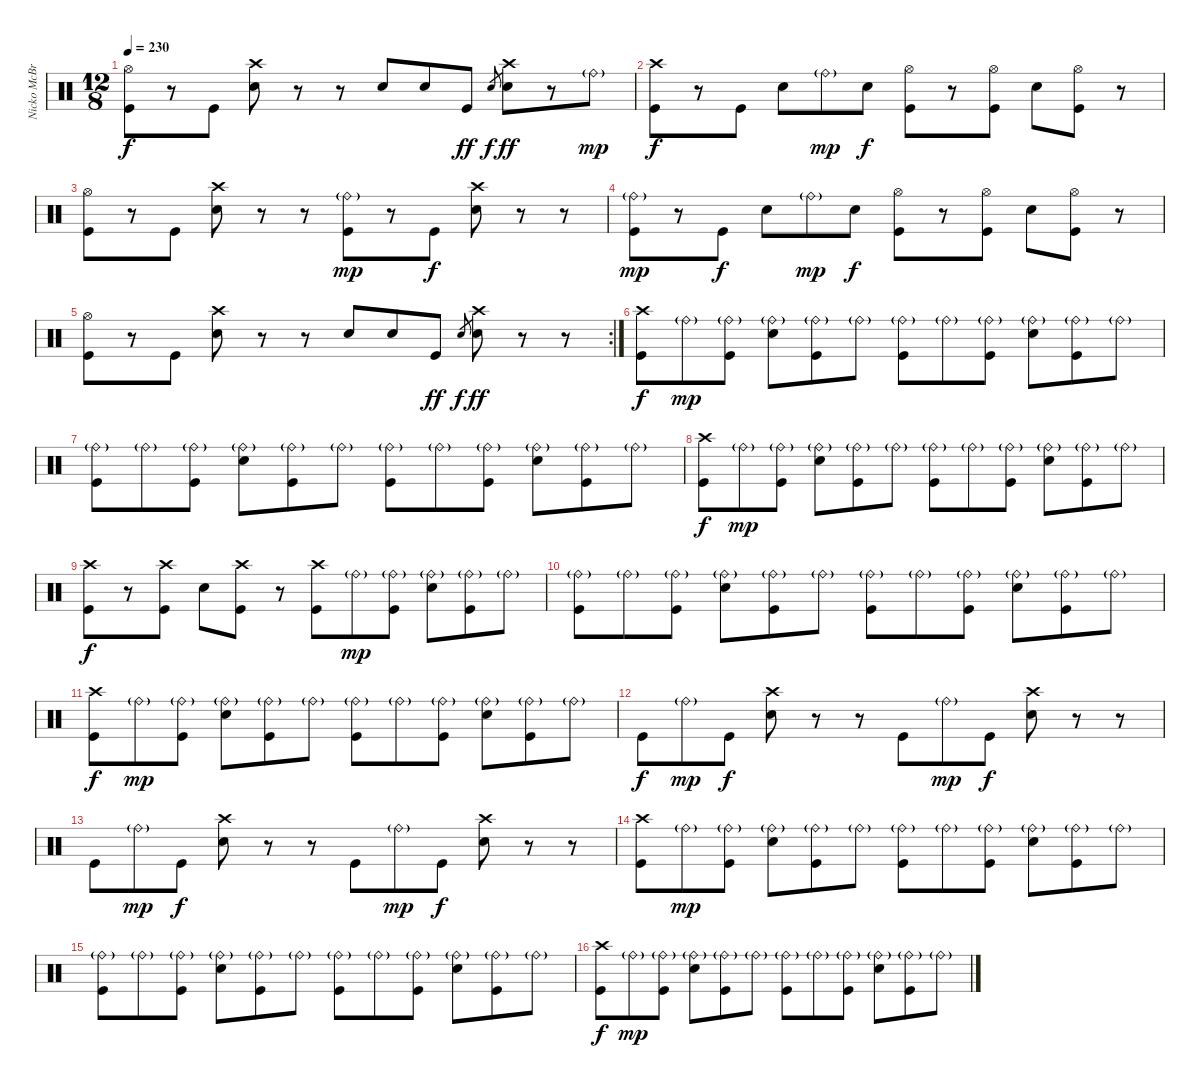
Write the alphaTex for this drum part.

\track ("Nicko McBrain" "Nicko McBr") {instrument percussion}
\staff {score}
\articulation defaults
\ts (12 8)
\tempo 230
\clef neutral
\ks c
("Hi-Hat (open)" "Kick (hit)").8{dy f} r.8 "Kick (hit)".8 ("Crash high (hit)" "Electric Snare (hit)").8 r.8 r.8 "Electric Snare (hit)".8 "Electric Snare (hit)".8 "Kick (hit)".8{dy ff} "Electric Snare (hit)".8{gr dy f} ("Crash high (hit)" "Electric Snare (hit)").8{dy ff} r.8 "Ride (bell)"{g}.8{dy mp} |
("Crash high (hit)" "Kick (hit)").8{dy f} r.8 "Kick (hit)".8 "Electric Snare (hit)".8 "Ride (bell)"{g}.8{dy mp} "Electric Snare (hit)".8{dy f} ("Hi-Hat (open)" "Kick (hit)").8 r.8 ("Hi-Hat (open)" "Kick (hit)").8 "Electric Snare (hit)".8 ("Hi-Hat (open)" "Kick (hit)").8 r.8 |
("Hi-Hat (open)" "Kick (hit)").8 r.8 "Kick (hit)".8 ("Crash high (hit)" "Electric Snare (hit)").8 r.8 r.8 ("Ride (bell)"{g} "Kick (hit)").8{dy mp} r.8 "Kick (hit)".8{dy f} ("Crash high (hit)" "Electric Snare (hit)").8 r.8 r.8 |
("Ride (bell)"{g} "Kick (hit)").8{dy mp} r.8 "Kick (hit)".8{dy f} "Electric Snare (hit)".8 "Ride (bell)"{g}.8{dy mp} "Electric Snare (hit)".8{dy f} ("Hi-Hat (open)" "Kick (hit)").8 r.8 ("Hi-Hat (open)" "Kick (hit)").8 "Electric Snare (hit)".8 ("Hi-Hat (open)" "Kick (hit)").8 r.8 |
\rc 2
("Hi-Hat (open)" "Kick (hit)").8 r.8 "Kick (hit)".8 ("Crash high (hit)" "Electric Snare (hit)").8 r.8 r.8 "Electric Snare (hit)".8 "Electric Snare (hit)".8 "Kick (hit)".8{dy ff} "Electric Snare (hit)".8{gr dy f} ("Crash high (hit)" "Electric Snare (hit)").8{dy ff} r.8 r.8 |
("Crash high (hit)" "Kick (hit)").8{dy f} "Ride (bell)"{g}.8{dy mp} ("Ride (bell)"{g} "Kick (hit)").8 ("Ride (bell)"{g} "Electric Snare (hit)").8 ("Ride (bell)"{g} "Kick (hit)").8 "Ride (bell)"{g}.8 ("Ride (bell)"{g} "Kick (hit)").8 "Ride (bell)"{g}.8 ("Ride (bell)"{g} "Kick (hit)").8 ("Ride (bell)"{g} "Electric Snare (hit)").8 ("Ride (bell)"{g} "Kick (hit)").8 "Ride (bell)"{g}.8 |
("Ride (bell)"{g} "Kick (hit)").8 "Ride (bell)"{g}.8 ("Ride (bell)"{g} "Kick (hit)").8 ("Ride (bell)"{g} "Electric Snare (hit)").8 ("Ride (bell)"{g} "Kick (hit)").8 "Ride (bell)"{g}.8 ("Ride (bell)"{g} "Kick (hit)").8 "Ride (bell)"{g}.8 ("Ride (bell)"{g} "Kick (hit)").8 ("Ride (bell)"{g} "Electric Snare (hit)").8 ("Ride (bell)"{g} "Kick (hit)").8 "Ride (bell)"{g}.8 |
("Crash high (hit)" "Kick (hit)").8{dy f} "Ride (bell)"{g}.8{dy mp} ("Ride (bell)"{g} "Kick (hit)").8 ("Ride (bell)"{g} "Electric Snare (hit)").8 ("Ride (bell)"{g} "Kick (hit)").8 "Ride (bell)"{g}.8 ("Ride (bell)"{g} "Kick (hit)").8 "Ride (bell)"{g}.8 ("Ride (bell)"{g} "Kick (hit)").8 ("Ride (bell)"{g} "Electric Snare (hit)").8 ("Ride (bell)"{g} "Kick (hit)").8 "Ride (bell)"{g}.8 |
("Crash high (hit)" "Kick (hit)").8{dy f} r.8 ("Crash high (hit)" "Kick (hit)").8 "Electric Snare (hit)".8 ("Crash high (hit)" "Kick (hit)").8 r.8 ("Crash high (hit)" "Kick (hit)").8 "Ride (bell)"{g}.8{dy mp} ("Ride (bell)"{g} "Kick (hit)").8 ("Ride (bell)"{g} "Electric Snare (hit)").8 ("Ride (bell)"{g} "Kick (hit)").8 "Ride (bell)"{g}.8 |
("Ride (bell)"{g} "Kick (hit)").8 "Ride (bell)"{g}.8 ("Ride (bell)"{g} "Kick (hit)").8 ("Ride (bell)"{g} "Electric Snare (hit)").8 ("Ride (bell)"{g} "Kick (hit)").8 "Ride (bell)"{g}.8 ("Ride (bell)"{g} "Kick (hit)").8 "Ride (bell)"{g}.8 ("Ride (bell)"{g} "Kick (hit)").8 ("Ride (bell)"{g} "Electric Snare (hit)").8 ("Ride (bell)"{g} "Kick (hit)").8 "Ride (bell)"{g}.8 |
("Crash high (hit)" "Kick (hit)").8{dy f} "Ride (bell)"{g}.8{dy mp} ("Ride (bell)"{g} "Kick (hit)").8 ("Ride (bell)"{g} "Electric Snare (hit)").8 ("Ride (bell)"{g} "Kick (hit)").8 "Ride (bell)"{g}.8 ("Ride (bell)"{g} "Kick (hit)").8 "Ride (bell)"{g}.8 ("Ride (bell)"{g} "Kick (hit)").8 ("Ride (bell)"{g} "Electric Snare (hit)").8 ("Ride (bell)"{g} "Kick (hit)").8 "Ride (bell)"{g}.8 |
"Kick (hit)".8{dy f} "Ride (bell)"{g}.8{dy mp} "Kick (hit)".8{dy f} ("Crash high (hit)" "Electric Snare (hit)").8 r.8 r.8 "Kick (hit)".8 "Ride (bell)"{g}.8{dy mp} "Kick (hit)".8{dy f} ("Crash high (hit)" "Electric Snare (hit)").8 r.8 r.8 |
"Kick (hit)".8 "Ride (bell)"{g}.8{dy mp} "Kick (hit)".8{dy f} ("Crash high (hit)" "Electric Snare (hit)").8 r.8 r.8 "Kick (hit)".8 "Ride (bell)"{g}.8{dy mp} "Kick (hit)".8{dy f} ("Crash high (hit)" "Electric Snare (hit)").8 r.8 r.8 |
("Crash high (hit)" "Kick (hit)").8 "Ride (bell)"{g}.8{dy mp} ("Ride (bell)"{g} "Kick (hit)").8 ("Ride (bell)"{g} "Electric Snare (hit)").8 ("Ride (bell)"{g} "Kick (hit)").8 "Ride (bell)"{g}.8 ("Ride (bell)"{g} "Kick (hit)").8 "Ride (bell)"{g}.8 ("Ride (bell)"{g} "Kick (hit)").8 ("Ride (bell)"{g} "Electric Snare (hit)").8 ("Ride (bell)"{g} "Kick (hit)").8 "Ride (bell)"{g}.8 |
("Ride (bell)"{g} "Kick (hit)").8 "Ride (bell)"{g}.8 ("Ride (bell)"{g} "Kick (hit)").8 ("Ride (bell)"{g} "Electric Snare (hit)").8 ("Ride (bell)"{g} "Kick (hit)").8 "Ride (bell)"{g}.8 ("Ride (bell)"{g} "Kick (hit)").8 "Ride (bell)"{g}.8 ("Ride (bell)"{g} "Kick (hit)").8 ("Ride (bell)"{g} "Electric Snare (hit)").8 ("Ride (bell)"{g} "Kick (hit)").8 "Ride (bell)"{g}.8 |
("Crash high (hit)" "Kick (hit)").8{dy f} "Ride (bell)"{g}.8{dy mp} ("Ride (bell)"{g} "Kick (hit)").8 ("Ride (bell)"{g} "Electric Snare (hit)").8 ("Ride (bell)"{g} "Kick (hit)").8 "Ride (bell)"{g}.8 ("Ride (bell)"{g} "Kick (hit)").8 "Ride (bell)"{g}.8 ("Ride (bell)"{g} "Kick (hit)").8 ("Ride (bell)"{g} "Electric Snare (hit)").8 ("Ride (bell)"{g} "Kick (hit)").8 "Ride (bell)"{g}.8
